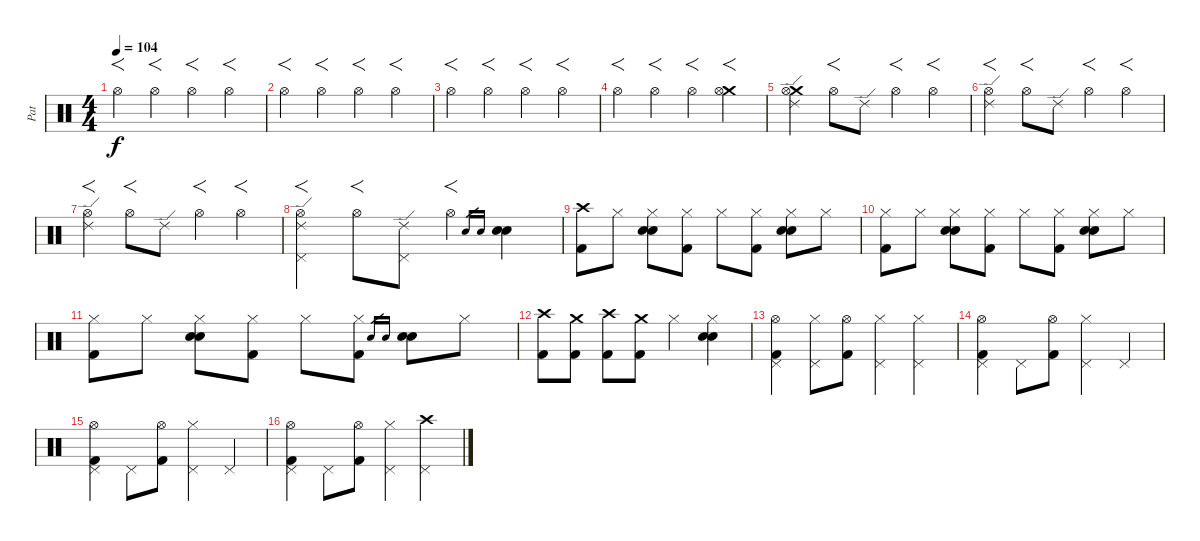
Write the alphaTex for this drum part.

\track ("Pat" "Pat") {instrument percussion}
\staff {score}
\articulation defaults
\ts (4 4)
\tempo 104
\clef neutral
\ks c "Hi-Hat (open)".4{f dy f balance 0} "Hi-Hat (open)".4{f balance 16} "Hi-Hat (open)".4{f balance 0} "Hi-Hat (open)".4{f balance 16}
|
"Hi-Hat (open)".4{f balance 0} "Hi-Hat (open)".4{f balance 16} "Hi-Hat (open)".4{f balance 0} "Hi-Hat (open)".4{f balance 16} |
"Hi-Hat (open)".4{f balance 0} "Hi-Hat (open)".4{f balance 16} "Hi-Hat (open)".4{f balance 0} "Hi-Hat (open)".4{f balance 16} |
"Hi-Hat (open)".4{f balance 0} "Hi-Hat (open)".4{f balance 16} "Hi-Hat (open)".4{f balance 0} ("Crash medium (hit)" "Hi-Hat (open)").4{f balance 16} |
("Crash medium (hit)" "Hi-Hat (open)" "Ride (edge) 2").4{balance 0} "Hi-Hat (open)".8{f balance 16} "Ride (edge) 2".8 "Hi-Hat (open)".4{f balance 16} "Hi-Hat (open)".4{f balance 0} |
("Hi-Hat (open)" "Ride (edge) 2").4{f balance 0} "Hi-Hat (open)".8{f balance 16} "Ride (edge) 2".8 "Hi-Hat (open)".4{f balance 16} "Hi-Hat (open)".4{f balance 0} |
("Hi-Hat (open)" "Ride (edge) 2").4{f balance 0} "Hi-Hat (open)".8{f balance 16} "Ride (edge) 2".8 "Hi-Hat (open)".4{f balance 16} "Hi-Hat (open)".4{f balance 0} |
("Ride (edge) 2" "Pedal Hi-Hat (hit)" "Hi-Hat (open)").4{f balance 0} "Hi-Hat (open)".8{f balance 16} ("Ride (edge) 2" "Pedal Hi-Hat (hit)").8 "Hi-Hat (open)".4{f balance 8} "Electric Snare (hit)".16{gr} "Snare (hit) 2".16{gr} ("Electric Snare (hit)" "Snare (hit) 2").4 |
("Crash high (hit)" "Kick (hit) 2").8 "Hi-Hat (closed)".8 ("Hi-Hat (closed)" "Electric Snare (hit)" "Snare (hit) 2").8 ("Hi-Hat (closed)" "Kick (hit) 2").8 "Hi-Hat (closed)".8 ("Hi-Hat (closed)" "Kick (hit) 2").8 ("Hi-Hat (closed)" "Electric Snare (hit)" "Snare (hit) 2").8 "Hi-Hat (closed)".8 |
("Hi-Hat (closed)" "Kick (hit) 2").8 "Hi-Hat (closed)".8 ("Hi-Hat (closed)" "Electric Snare (hit)" "Snare (hit) 2").8 ("Hi-Hat (closed)" "Kick (hit) 2").8 "Hi-Hat (closed)".8 ("Hi-Hat (closed)" "Kick (hit) 2").8 ("Hi-Hat (closed)" "Electric Snare (hit)" "Snare (hit) 2").8 "Hi-Hat (closed)".8 |
("Hi-Hat (closed)" "Kick (hit) 2").8 "Hi-Hat (closed)".8 ("Hi-Hat (closed)" "Electric Snare (hit)" "Snare (hit) 2").8 ("Hi-Hat (closed)" "Kick (hit) 2").8 "Hi-Hat (closed)".8 ("Hi-Hat (closed)" "Kick (hit) 2").8 "Electric Snare (hit)".16{gr} "Snare (hit) 2".16{gr} ("Electric Snare (hit)" "Snare (hit) 2").8 "Hi-Hat (closed)".8 |
("Crash high (hit)" "Kick (hit) 2").8 ("Crash medium (hit)" "Kick (hit) 2").8 ("Crash high (hit)" "Kick (hit) 2").8 ("Crash medium (hit)" "Kick (hit) 2").8 "Hi-Hat (closed)".4 ("Hi-Hat (closed)" "Electric Snare (hit)" "Snare (hit) 2").4 |
("Pedal Hi-Hat (hit)" "Hi-Hat (open)" "Kick (hit) 2").4 ("Pedal Hi-Hat (hit)" "Hi-Hat (closed)").8 ("Hi-Hat (open)" "Kick (hit) 2").8 ("Pedal Hi-Hat (hit)" "Hi-Hat (closed)").4 ("Pedal Hi-Hat (hit)" "Hi-Hat (closed)").4 |
("Pedal Hi-Hat (hit)" "Hi-Hat (open)" "Kick (hit) 2").4 "Pedal Hi-Hat (hit)".8 ("Hi-Hat (open)" "Kick (hit) 2").8 ("Pedal Hi-Hat (hit)" "Hi-Hat (closed)").4 "Pedal Hi-Hat (hit)".4 |
("Pedal Hi-Hat (hit)" "Hi-Hat (open)" "Kick (hit) 2").4 "Pedal Hi-Hat (hit)".8 ("Hi-Hat (open)" "Kick (hit) 2").8 ("Pedal Hi-Hat (hit)" "Hi-Hat (closed)").4 "Pedal Hi-Hat (hit)".4 |
("Pedal Hi-Hat (hit)" "Hi-Hat (open)" "Kick (hit) 2").4 "Pedal Hi-Hat (hit)".8 ("Hi-Hat (open)" "Kick (hit) 2").8 ("Pedal Hi-Hat (hit)" "Hi-Hat (closed)").4 ("Pedal Hi-Hat (hit)" "Crash high (hit)").4
